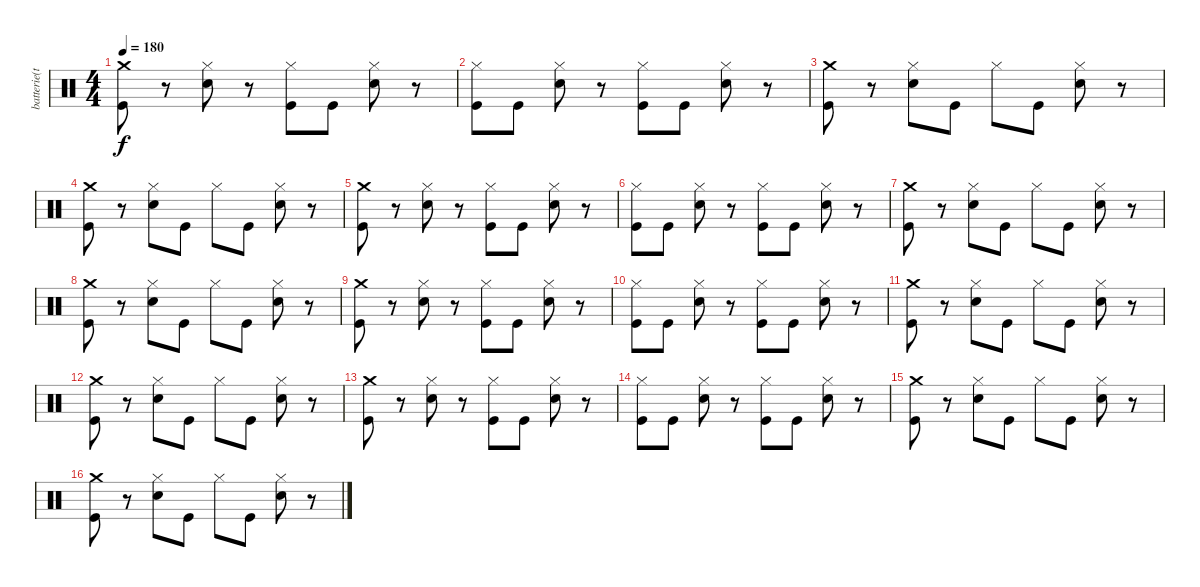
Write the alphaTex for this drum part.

\track ("batterie(topper)" "batterie(t") {instrument percussion}
\staff {score}
\articulation defaults
\ts (4 4)
\tempo 180
\clef neutral
\ks c
("Crash medium (hit)" "Kick (hit)").8{dy f} r.8 ("Hi-Hat (closed)" "Snare (hit) 2").8 r.8 ("Hi-Hat (closed)" "Kick (hit)").8 "Kick (hit)".8 ("Hi-Hat (closed)" "Snare (hit) 2").8 r.8 |
("Hi-Hat (closed)" "Kick (hit)").8 "Kick (hit)".8 ("Hi-Hat (closed)" "Snare (hit) 2").8 r.8 ("Hi-Hat (closed)" "Kick (hit)").8 "Kick (hit)".8 ("Hi-Hat (closed)" "Snare (hit) 2").8 r.8 |
("Crash medium (hit)" "Kick (hit)").8 r.8 ("Hi-Hat (closed)" "Snare (hit) 2").8 "Kick (hit)".8 "Hi-Hat (closed)".8 "Kick (hit)".8 ("Hi-Hat (closed)" "Snare (hit) 2").8 r.8 |
("Crash medium (hit)" "Kick (hit)").8 r.8 ("Hi-Hat (closed)" "Snare (hit) 2").8 "Kick (hit)".8 "Hi-Hat (closed)".8 "Kick (hit)".8 ("Hi-Hat (closed)" "Snare (hit) 2").8 r.8 |
("Crash medium (hit)" "Kick (hit)").8 r.8 ("Hi-Hat (closed)" "Snare (hit) 2").8 r.8 ("Hi-Hat (closed)" "Kick (hit)").8 "Kick (hit)".8 ("Hi-Hat (closed)" "Snare (hit) 2").8 r.8 |
("Hi-Hat (closed)" "Kick (hit)").8 "Kick (hit)".8 ("Hi-Hat (closed)" "Snare (hit) 2").8 r.8 ("Hi-Hat (closed)" "Kick (hit)").8 "Kick (hit)".8 ("Hi-Hat (closed)" "Snare (hit) 2").8 r.8 |
("Crash medium (hit)" "Kick (hit)").8 r.8 ("Hi-Hat (closed)" "Snare (hit) 2").8 "Kick (hit)".8 "Hi-Hat (closed)".8 "Kick (hit)".8 ("Hi-Hat (closed)" "Snare (hit) 2").8 r.8 |
("Crash medium (hit)" "Kick (hit)").8 r.8 ("Hi-Hat (closed)" "Snare (hit) 2").8 "Kick (hit)".8 "Hi-Hat (closed)".8 "Kick (hit)".8 ("Hi-Hat (closed)" "Snare (hit) 2").8 r.8 |
("Crash medium (hit)" "Kick (hit)").8 r.8 ("Hi-Hat (closed)" "Snare (hit) 2").8 r.8 ("Hi-Hat (closed)" "Kick (hit)").8 "Kick (hit)".8 ("Hi-Hat (closed)" "Snare (hit) 2").8 r.8 |
("Hi-Hat (closed)" "Kick (hit)").8 "Kick (hit)".8 ("Hi-Hat (closed)" "Snare (hit) 2").8 r.8 ("Hi-Hat (closed)" "Kick (hit)").8 "Kick (hit)".8 ("Hi-Hat (closed)" "Snare (hit) 2").8 r.8 |
("Crash medium (hit)" "Kick (hit)").8 r.8 ("Hi-Hat (closed)" "Snare (hit) 2").8 "Kick (hit)".8 "Hi-Hat (closed)".8 "Kick (hit)".8 ("Hi-Hat (closed)" "Snare (hit) 2").8 r.8 |
("Crash medium (hit)" "Kick (hit)").8 r.8 ("Hi-Hat (closed)" "Snare (hit) 2").8 "Kick (hit)".8 "Hi-Hat (closed)".8 "Kick (hit)".8 ("Hi-Hat (closed)" "Snare (hit) 2").8 r.8 |
("Crash medium (hit)" "Kick (hit)").8 r.8 ("Hi-Hat (closed)" "Snare (hit) 2").8 r.8 ("Hi-Hat (closed)" "Kick (hit)").8 "Kick (hit)".8 ("Hi-Hat (closed)" "Snare (hit) 2").8 r.8 |
("Hi-Hat (closed)" "Kick (hit)").8 "Kick (hit)".8 ("Hi-Hat (closed)" "Snare (hit) 2").8 r.8 ("Hi-Hat (closed)" "Kick (hit)").8 "Kick (hit)".8 ("Hi-Hat (closed)" "Snare (hit) 2").8 r.8 |
("Crash medium (hit)" "Kick (hit)").8 r.8 ("Hi-Hat (closed)" "Snare (hit) 2").8 "Kick (hit)".8 "Hi-Hat (closed)".8 "Kick (hit)".8 ("Hi-Hat (closed)" "Snare (hit) 2").8 r.8 |
("Crash medium (hit)" "Kick (hit)").8 r.8 ("Hi-Hat (closed)" "Snare (hit) 2").8 "Kick (hit)".8 "Hi-Hat (closed)".8 "Kick (hit)".8 ("Hi-Hat (closed)" "Snare (hit) 2").8 r.8
